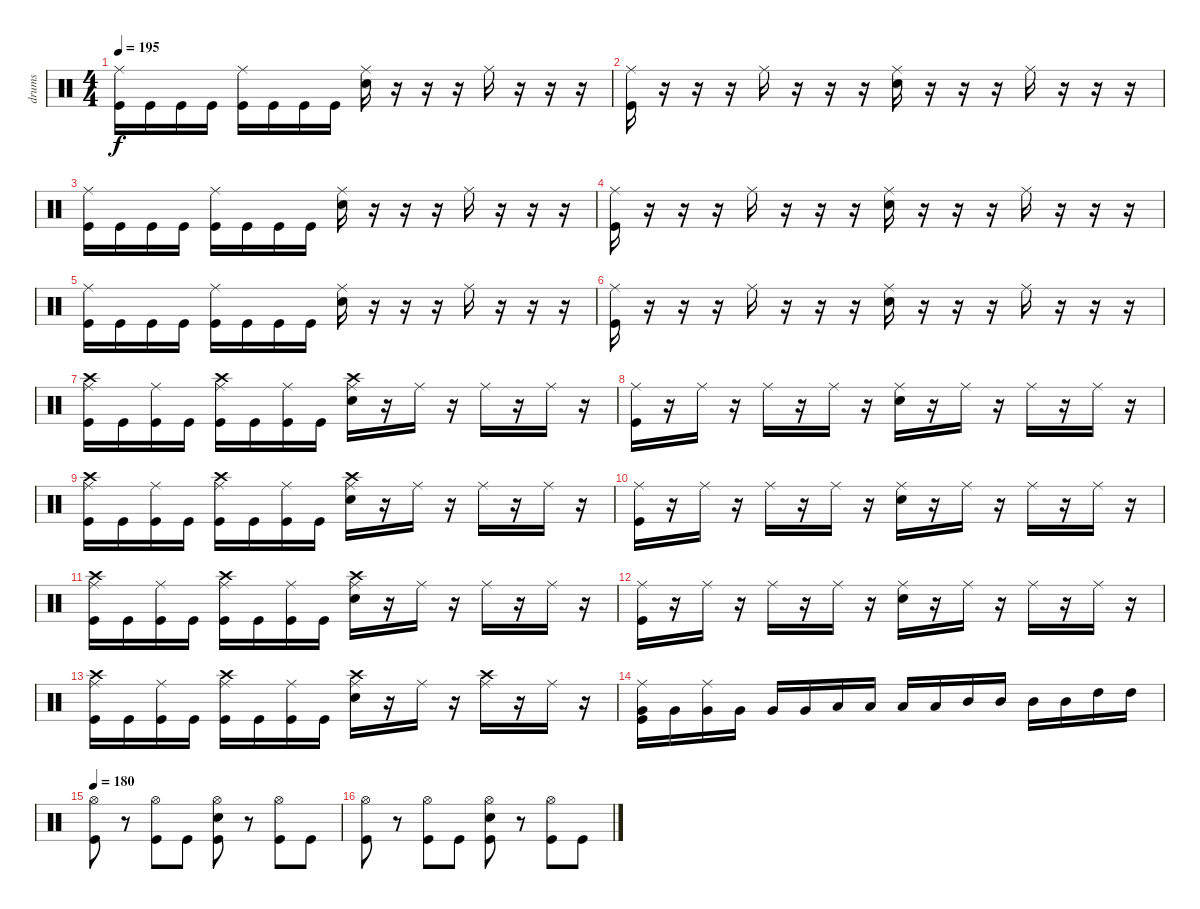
\track ("drums" "drums") {instrument percussion}
\staff {score}
\articulation defaults
\ts (4 4)
\tempo 195
\clef neutral
\ks c
("Ride (middle)" "Kick (hit)").16{dy f} "Kick (hit)".16 "Kick (hit)".16 "Kick (hit)".16 ("Ride (middle)" "Kick (hit)").16 "Kick (hit)".16 "Kick (hit)".16 "Kick (hit)".16 ("Ride (middle)" "Electric Snare (hit)").16 r.16 r.16 r.16 "Ride (middle)".16 r.16 r.16 r.16 |
("Ride (middle)" "Kick (hit)").16 r.16 r.16 r.16 "Ride (middle)".16 r.16 r.16 r.16 ("Ride (middle)" "Electric Snare (hit)").16 r.16 r.16 r.16 "Ride (middle)".16 r.16 r.16 r.16 |
("Ride (middle)" "Kick (hit)").16 "Kick (hit)".16 "Kick (hit)".16 "Kick (hit)".16 ("Ride (middle)" "Kick (hit)").16 "Kick (hit)".16 "Kick (hit)".16 "Kick (hit)".16 ("Ride (middle)" "Electric Snare (hit)").16 r.16 r.16 r.16 "Ride (middle)".16 r.16 r.16 r.16 |
("Ride (middle)" "Kick (hit)").16 r.16 r.16 r.16 "Ride (middle)".16 r.16 r.16 r.16 ("Ride (middle)" "Electric Snare (hit)").16 r.16 r.16 r.16 "Ride (middle)".16 r.16 r.16 r.16 |
("Ride (middle)" "Kick (hit)").16 "Kick (hit)".16 "Kick (hit)".16 "Kick (hit)".16 ("Ride (middle)" "Kick (hit)").16 "Kick (hit)".16 "Kick (hit)".16 "Kick (hit)".16 ("Ride (middle)" "Electric Snare (hit)").16 r.16 r.16 r.16 "Ride (middle)".16 r.16 r.16 r.16 |
("Ride (middle)" "Kick (hit)").16 r.16 r.16 r.16 "Ride (middle)".16 r.16 r.16 r.16 ("Ride (middle)" "Electric Snare (hit)").16 r.16 r.16 r.16 "Ride (middle)".16 r.16 r.16 r.16 |
("Ride (middle)" "Crash high (hit)" "Kick (hit)").16 "Kick (hit)".16 ("Ride (middle)" "Kick (hit)").16 "Kick (hit)".16 ("Ride (middle)" "Crash high (hit)" "Kick (hit)").16 "Kick (hit)".16 ("Ride (middle)" "Kick (hit)").16 "Kick (hit)".16 ("Ride (middle)" "Crash high (hit)" "Electric Snare (hit)").16 r.16 "Ride (middle)".16 r.16 "Ride (middle)".16 r.16 "Ride (middle)".16 r.16 |
("Ride (middle)" "Kick (hit)").16 r.16 "Ride (middle)".16 r.16 "Ride (middle)".16 r.16 "Ride (middle)".16 r.16 ("Ride (middle)" "Electric Snare (hit)").16 r.16 "Ride (middle)".16 r.16 "Ride (middle)".16 r.16 "Ride (middle)".16 r.16 |
("Ride (middle)" "Crash high (hit)" "Kick (hit)").16 "Kick (hit)".16 ("Ride (middle)" "Kick (hit)").16 "Kick (hit)".16 ("Ride (middle)" "Crash high (hit)" "Kick (hit)").16 "Kick (hit)".16 ("Ride (middle)" "Kick (hit)").16 "Kick (hit)".16 ("Ride (middle)" "Crash high (hit)" "Electric Snare (hit)").16 r.16 "Ride (middle)".16 r.16 "Ride (middle)".16 r.16 "Ride (middle)".16 r.16 |
("Ride (middle)" "Kick (hit)").16 r.16 "Ride (middle)".16 r.16 "Ride (middle)".16 r.16 "Ride (middle)".16 r.16 ("Ride (middle)" "Electric Snare (hit)").16 r.16 "Ride (middle)".16 r.16 "Ride (middle)".16 r.16 "Ride (middle)".16 r.16 |
("Ride (middle)" "Crash high (hit)" "Kick (hit)").16 "Kick (hit)".16 ("Ride (middle)" "Kick (hit)").16 "Kick (hit)".16 ("Ride (middle)" "Crash high (hit)" "Kick (hit)").16 "Kick (hit)".16 ("Ride (middle)" "Kick (hit)").16 "Kick (hit)".16 ("Ride (middle)" "Crash high (hit)" "Electric Snare (hit)").16 r.16 "Ride (middle)".16 r.16 "Ride (middle)".16 r.16 "Ride (middle)".16 r.16 |
("Ride (middle)" "Kick (hit)").16 r.16 "Ride (middle)".16 r.16 "Ride (middle)".16 r.16 "Ride (middle)".16 r.16 ("Ride (middle)" "Electric Snare (hit)").16 r.16 "Ride (middle)".16 r.16 "Ride (middle)".16 r.16 "Ride (middle)".16 r.16 |
("Ride (middle)" "Crash high (hit)" "Kick (hit)").16 "Kick (hit)".16 ("Ride (middle)" "Kick (hit)").16 "Kick (hit)".16 ("Ride (middle)" "Crash high (hit)" "Kick (hit)").16 "Kick (hit)".16 ("Ride (middle)" "Kick (hit)").16 "Kick (hit)".16 ("Ride (middle)" "Crash high (hit)" "Electric Snare (hit)").16 r.16 "Ride (middle)".16 r.16 ("Ride (middle)" "Crash high (hit)").16 r.16 "Ride (middle)".16 r.16 |
("Ride (middle)" "Very Low Tom (hit)" "Kick (hit)").16 "Very Low Tom (hit)".16 ("Ride (middle)" "Very Low Tom (hit)").16 "Very Low Tom (hit)".16 "Very Low Tom (hit)".16 "Very Low Tom (hit)".16 "Low Tom (hit)".16 "Low Tom (hit)".16 "Low Tom (hit)".16 "Low Tom (hit)".16 "Mid Tom (hit)".16 "Mid Tom (hit)".16 "Mid Tom (hit)".16 "Mid Tom (hit)".16 "High Tom (hit)".16 "High Tom (hit)".16 |
\tempo 180
("Hi-Hat (open)" "Kick (hit)").8 r.8 ("Hi-Hat (open)" "Kick (hit)").8 "Kick (hit)".8 ("Hi-Hat (open)" "Electric Snare (hit)" "Kick (hit)").8 r.8 ("Hi-Hat (open)" "Kick (hit)").8 "Kick (hit)".8 |
("Hi-Hat (open)" "Kick (hit)").8 r.8 ("Hi-Hat (open)" "Kick (hit)").8 "Kick (hit)".8 ("Hi-Hat (open)" "Electric Snare (hit)" "Kick (hit)").8 r.8 ("Hi-Hat (open)" "Kick (hit)").8 "Kick (hit)".8
